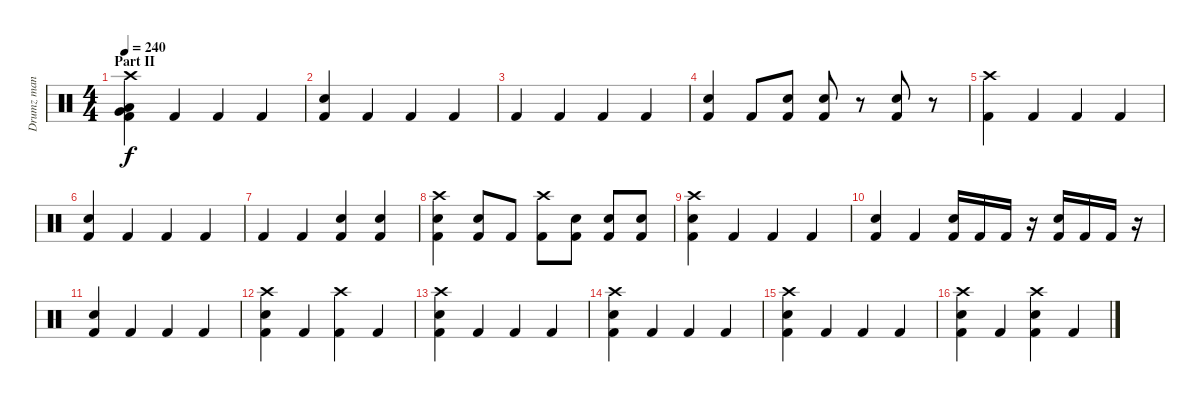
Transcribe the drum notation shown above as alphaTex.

\track ("Drumz man" "Drumz man") {instrument percussion}
\staff {score}
\articulation defaults
\ts (4 4)
\section ("" "Part II")
\tempo 240
\clef neutral
\ks c
("Crash high (hit)" "Kick (hit) 2" "Low Floor Tom (hit)" "Very Low Tom (hit)").4{dy f} "Kick (hit) 2".4 "Kick (hit) 2".4 "Kick (hit) 2".4 |
("Kick (hit) 2" "Snare (hit) 2").4 "Kick (hit) 2".4 "Kick (hit) 2".4 "Kick (hit) 2".4 |
"Kick (hit) 2".4 "Kick (hit) 2".4 "Kick (hit) 2".4 "Kick (hit) 2".4 |
("Kick (hit) 2" "Snare (hit) 2").4 "Kick (hit) 2".8 ("Kick (hit) 2" "Snare (hit) 2").8 ("Kick (hit) 2" "Snare (hit) 2").8 r.8 ("Kick (hit) 2" "Snare (hit) 2").8 r.8 |
("Crash high (hit)" "Kick (hit) 2").4 "Kick (hit) 2".4 "Kick (hit) 2".4 "Kick (hit) 2".4 |
("Kick (hit) 2" "Snare (hit) 2").4 "Kick (hit) 2".4 "Kick (hit) 2".4 "Kick (hit) 2".4 |
"Kick (hit) 2".4 "Kick (hit) 2".4 ("Kick (hit) 2" "Electric Snare (hit)").4 ("Kick (hit) 2" "Electric Snare (hit)").4 |
("Crash high (hit)" "Kick (hit) 2" "Snare (hit) 2").4 ("Kick (hit) 2" "Electric Snare (hit)").8 "Kick (hit) 2".8 ("Crash high (hit)" "Kick (hit) 2").8 ("Kick (hit) 2" "Electric Snare (hit)").8 ("Kick (hit) 2" "Electric Snare (hit)").8 ("Kick (hit) 2" "Electric Snare (hit)").8 |
("Crash high (hit)" "Kick (hit) 2" "Snare (hit) 2").4 "Kick (hit) 2".4 "Kick (hit) 2".4 "Kick (hit) 2".4 |
("Kick (hit) 2" "Snare (hit) 2").4 "Kick (hit) 2".4 ("Kick (hit) 2" "Electric Snare (hit)").16 "Kick (hit) 2".16 "Kick (hit) 2".16 r.16 ("Kick (hit) 2" "Electric Snare (hit)").16 "Kick (hit) 2".16 "Kick (hit) 2".16 r.16 |
("Kick (hit) 2" "Snare (hit) 2").4 "Kick (hit) 2".4 "Kick (hit) 2".4 "Kick (hit) 2".4 |
("Crash high (hit)" "Kick (hit) 2" "Snare (hit) 2").4 "Kick (hit) 2".4 ("Crash high (hit)" "Kick (hit) 2").4 "Kick (hit) 2".4 |
("Crash high (hit)" "Kick (hit) 2" "Snare (hit) 2").4 "Kick (hit) 2".4 "Kick (hit) 2".4 "Kick (hit) 2".4 |
("Crash high (hit)" "Kick (hit) 2" "Snare (hit) 2").4 "Kick (hit) 2".4 "Kick (hit) 2".4 "Kick (hit) 2".4 |
("Crash high (hit)" "Kick (hit) 2" "Snare (hit) 2").4 "Kick (hit) 2".4 "Kick (hit) 2".4 "Kick (hit) 2".4 |
("Crash high (hit)" "Kick (hit) 2" "Snare (hit) 2").4 "Kick (hit) 2".4 ("Crash high (hit)" "Kick (hit) 2" "Snare (hit) 2").4 "Kick (hit) 2".4
